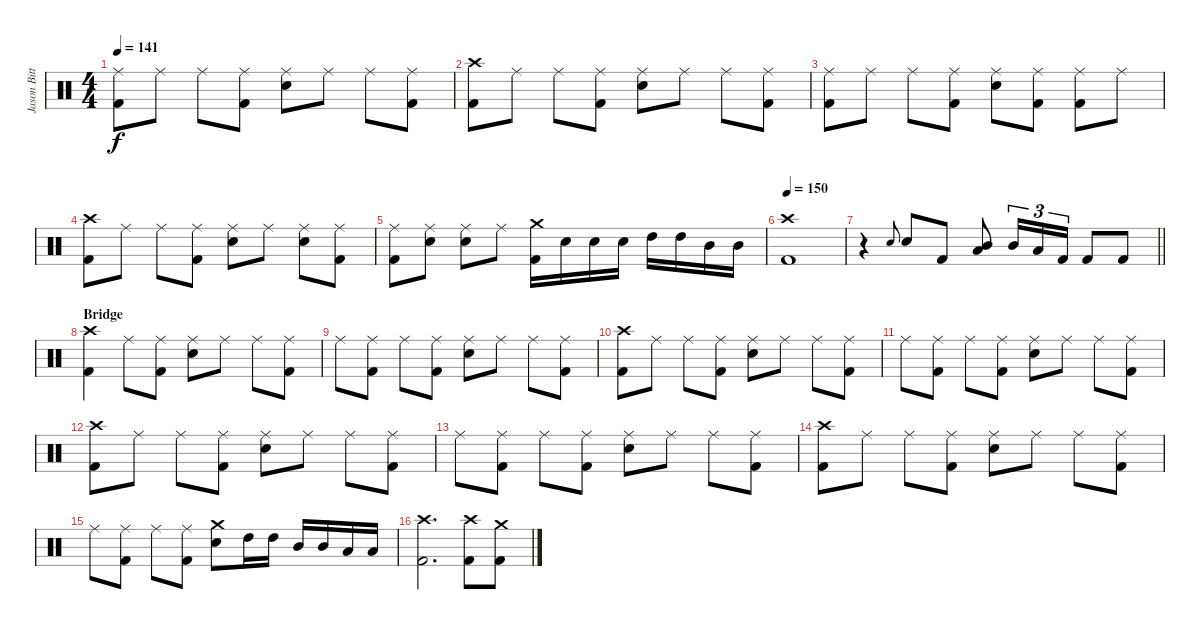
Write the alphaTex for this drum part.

\track ("Jason Bittner" "Jason Bitt") {instrument percussion}
\staff {score}
\articulation defaults
\ts (4 4)
\tempo 141
\clef neutral
\ks c
("Ride (middle)" "Kick (hit) 2").8{dy f} "Ride (middle)".8 "Ride (middle)".8 ("Ride (middle)" "Kick (hit) 2").8 ("Ride (middle)" "Electric Snare (hit)").8 "Ride (middle)".8 "Ride (middle)".8 ("Ride (middle)" "Kick (hit) 2").8 |
("Crash high (hit)" "Kick (hit) 2").8 "Ride (middle)".8 "Ride (middle)".8 ("Ride (middle)" "Kick (hit) 2").8 ("Ride (middle)" "Electric Snare (hit)").8 "Ride (middle)".8 "Ride (middle)".8 ("Ride (middle)" "Kick (hit) 2").8 |
("Ride (middle)" "Kick (hit) 2").8 "Ride (middle)".8 "Ride (middle)".8 ("Ride (middle)" "Kick (hit) 2").8 ("Ride (middle)" "Electric Snare (hit)").8 ("Ride (middle)" "Kick (hit) 2").8 ("Ride (middle)" "Kick (hit) 2").8 "Ride (middle)".8 |
("Crash high (hit)" "Kick (hit) 2").8 "Ride (middle)".8 "Ride (middle)".8 ("Ride (middle)" "Kick (hit) 2").8 ("Ride (middle)" "Electric Snare (hit)").8 "Ride (middle)".8 ("Ride (middle)" "Electric Snare (hit)").8 ("Ride (middle)" "Kick (hit) 2").8 |
("Ride (middle)" "Kick (hit) 2").8 ("Ride (middle)" "Electric Snare (hit)").8 ("Ride (middle)" "Electric Snare (hit)").8 "Ride (middle)".8 ("Crash medium (hit)" "Kick (hit) 2").16 "Electric Snare (hit)".16 "Electric Snare (hit)".16 "Electric Snare (hit)".16 "High Tom (hit)".16 "High Tom (hit)".16 "Mid Tom (hit)".16 "Mid Tom (hit)".16 |
\tempo 150
("Crash high (hit)" "Kick (hit) 2").1 |
\barLineRight lightlight
r.4 "Electric Snare (hit)".8{gr onbeat} "Electric Snare (hit)".8 "Kick (hit) 2".8 ("Mid Tom (hit)" "Low Tom (hit)").8 "Mid Tom (hit)".16{tu (3 2)} "Low Tom (hit)".16{tu (3 2)} "Kick (hit) 2".16{tu (3 2)} "Kick (hit) 2".8 "Kick (hit) 2".8 |
\section ("" "Bridge")
("Crash high (hit)" "Kick (hit) 2").4 "Ride (middle)".8 ("Ride (middle)" "Kick (hit) 2").8 ("Ride (middle)" "Electric Snare (hit)").8 "Ride (middle)".8 "Ride (middle)".8 ("Ride (middle)" "Kick (hit) 2").8 |
"Ride (middle)".8 ("Ride (middle)" "Kick (hit) 2").8 "Ride (middle)".8 ("Ride (middle)" "Kick (hit) 2").8 ("Ride (middle)" "Electric Snare (hit)").8 "Ride (middle)".8 "Ride (middle)".8 ("Ride (middle)" "Kick (hit) 2").8 |
("Crash high (hit)" "Kick (hit) 2").8 "Ride (middle)".8 "Ride (middle)".8 ("Ride (middle)" "Kick (hit) 2").8 ("Ride (middle)" "Electric Snare (hit)").8 "Ride (middle)".8 "Ride (middle)".8 ("Ride (middle)" "Kick (hit) 2").8 |
"Ride (middle)".8 ("Ride (middle)" "Kick (hit) 2").8 "Ride (middle)".8 ("Ride (middle)" "Kick (hit) 2").8 ("Ride (middle)" "Electric Snare (hit)").8 "Ride (middle)".8 "Ride (middle)".8 ("Ride (middle)" "Kick (hit) 2").8 |
("Crash high (hit)" "Kick (hit) 2").8 "Ride (middle)".8 "Ride (middle)".8 ("Ride (middle)" "Kick (hit) 2").8 ("Ride (middle)" "Electric Snare (hit)").8 "Ride (middle)".8 "Ride (middle)".8 ("Ride (middle)" "Kick (hit) 2").8 |
"Ride (middle)".8 ("Ride (middle)" "Kick (hit) 2").8 "Ride (middle)".8 ("Ride (middle)" "Kick (hit) 2").8 ("Ride (middle)" "Electric Snare (hit)").8 "Ride (middle)".8 "Ride (middle)".8 ("Ride (middle)" "Kick (hit) 2").8 |
("Crash high (hit)" "Kick (hit) 2").8 "Ride (middle)".8 "Ride (middle)".8 ("Ride (middle)" "Kick (hit) 2").8 ("Ride (middle)" "Electric Snare (hit)").8 "Ride (middle)".8 "Ride (middle)".8 ("Ride (middle)" "Kick (hit) 2").8 |
"Ride (middle)".8 ("Ride (middle)" "Kick (hit) 2").8 "Ride (middle)".8 ("Ride (middle)" "Kick (hit) 2").8 ("Crash medium (hit)" "Electric Snare (hit)").8 "High Tom (hit)".16 "High Tom (hit)".16 "Mid Tom (hit)".16 "Mid Tom (hit)".16 "Low Tom (hit)".16 "Low Tom (hit)".16 |
("Crash high (hit)" "Kick (hit) 2").2{d} ("Crash high (hit)" "Kick (hit) 2").8 ("Crash medium (hit)" "Kick (hit) 2").8
